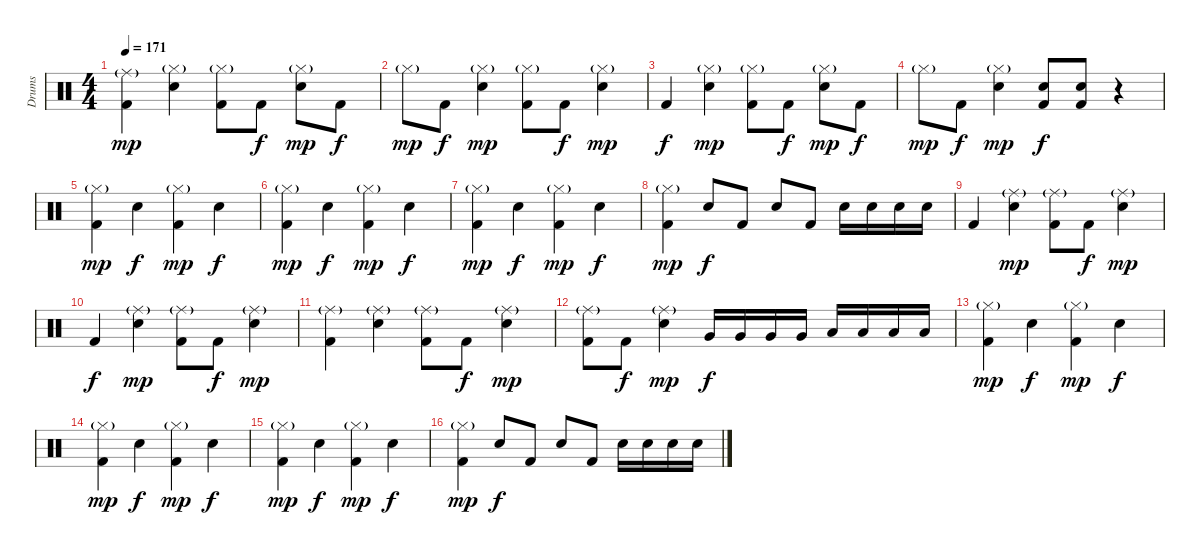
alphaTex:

\track ("Drums" "Drums") {instrument percussion}
\staff {score}
\articulation defaults
\ts (4 4)
\tempo 171
\clef neutral
\ks c
("Ride (middle)"{g} "Kick (hit) 2").4{dy mp} ("Hi-Hat (closed)"{g} "Electric Snare (hit)").4 ("Hi-Hat (closed)"{g} "Kick (hit) 2").8 "Kick (hit) 2".8{dy f} ("Hi-Hat (closed)"{g} "Electric Snare (hit)").8{dy mp} "Kick (hit) 2".8{dy f} |
"Hi-Hat (closed)"{g}.8{dy mp} "Kick (hit) 2".8{dy f} ("Hi-Hat (closed)"{g} "Electric Snare (hit)").4{dy mp} ("Hi-Hat (closed)"{g} "Kick (hit) 2").8 "Kick (hit) 2".8{dy f} ("Hi-Hat (closed)"{g} "Electric Snare (hit)").4{dy mp} |
"Kick (hit) 2".4{dy f} ("Hi-Hat (closed)"{g} "Electric Snare (hit)").4{dy mp} ("Hi-Hat (closed)"{g} "Kick (hit) 2").8 "Kick (hit) 2".8{dy f} ("Hi-Hat (closed)"{g} "Electric Snare (hit)").8{dy mp} "Kick (hit) 2".8{dy f} |
"Hi-Hat (closed)"{g}.8{dy mp} "Kick (hit) 2".8{dy f} ("Hi-Hat (closed)"{g} "Electric Snare (hit)").4{dy mp} ("Electric Snare (hit)" "Kick (hit) 2").8{dy f} ("Electric Snare (hit)" "Kick (hit) 2").8 r.4 |
("Hi-Hat (closed)"{g} "Kick (hit) 2").4{dy mp} "Electric Snare (hit)".4{dy f} ("Hi-Hat (closed)"{g} "Kick (hit) 2").4{dy mp} "Electric Snare (hit)".4{dy f} |
("Hi-Hat (closed)"{g} "Kick (hit) 2").4{dy mp} "Electric Snare (hit)".4{dy f} ("Hi-Hat (closed)"{g} "Kick (hit) 2").4{dy mp} "Electric Snare (hit)".4{dy f} |
("Hi-Hat (closed)"{g} "Kick (hit) 2").4{dy mp} "Electric Snare (hit)".4{dy f} ("Hi-Hat (closed)"{g} "Kick (hit) 2").4{dy mp} "Electric Snare (hit)".4{dy f} |
("Hi-Hat (closed)"{g} "Kick (hit) 2").4{dy mp} "Electric Snare (hit)".8{dy f} "Kick (hit) 2".8 "Electric Snare (hit)".8 "Kick (hit) 2".8 "Electric Snare (hit)".16 "Electric Snare (hit)".16 "Electric Snare (hit)".16 "Electric Snare (hit)".16 |
"Kick (hit) 2".4 ("Ride (middle)"{g} "Electric Snare (hit)").4{dy mp} ("Ride (middle)"{g} "Kick (hit) 2").8 "Kick (hit) 2".8{dy f} ("Ride (middle)"{g} "Electric Snare (hit)").4{dy mp} |
"Kick (hit) 2".4{dy f} ("Ride (middle)"{g} "Electric Snare (hit)").4{dy mp} ("Ride (middle)"{g} "Kick (hit) 2").8 "Kick (hit) 2".8{dy f} ("Ride (middle)"{g} "Electric Snare (hit)").4{dy mp} |
("Ride (middle)"{g} "Kick (hit) 2").4 ("Ride (middle)"{g} "Electric Snare (hit)").4 ("Ride (middle)"{g} "Kick (hit) 2").8 "Kick (hit) 2".8{dy f} ("Ride (middle)"{g} "Electric Snare (hit)").4{dy mp} |
("Ride (middle)"{g} "Kick (hit) 2").8 "Kick (hit) 2".8{dy f} ("Ride (middle)"{g} "Electric Snare (hit)").4{dy mp} "Very Low Tom (hit)".16{dy f} "Very Low Tom (hit)".16 "Very Low Tom (hit)".16 "Very Low Tom (hit)".16 "Low Floor Tom (hit)".16 "Low Floor Tom (hit)".16 "Low Floor Tom (hit)".16 "Low Floor Tom (hit)".16 |
("Hi-Hat (closed)"{g} "Kick (hit) 2").4{dy mp} "Electric Snare (hit)".4{dy f} ("Hi-Hat (closed)"{g} "Kick (hit) 2").4{dy mp} "Electric Snare (hit)".4{dy f} |
("Hi-Hat (closed)"{g} "Kick (hit) 2").4{dy mp} "Electric Snare (hit)".4{dy f} ("Hi-Hat (closed)"{g} "Kick (hit) 2").4{dy mp} "Electric Snare (hit)".4{dy f} |
("Hi-Hat (closed)"{g} "Kick (hit) 2").4{dy mp} "Electric Snare (hit)".4{dy f} ("Hi-Hat (closed)"{g} "Kick (hit) 2").4{dy mp} "Electric Snare (hit)".4{dy f} |
("Hi-Hat (closed)"{g} "Kick (hit) 2").4{dy mp} "Electric Snare (hit)".8{dy f} "Kick (hit) 2".8 "Electric Snare (hit)".8 "Kick (hit) 2".8 "Electric Snare (hit)".16 "Electric Snare (hit)".16 "Electric Snare (hit)".16 "Electric Snare (hit)".16
